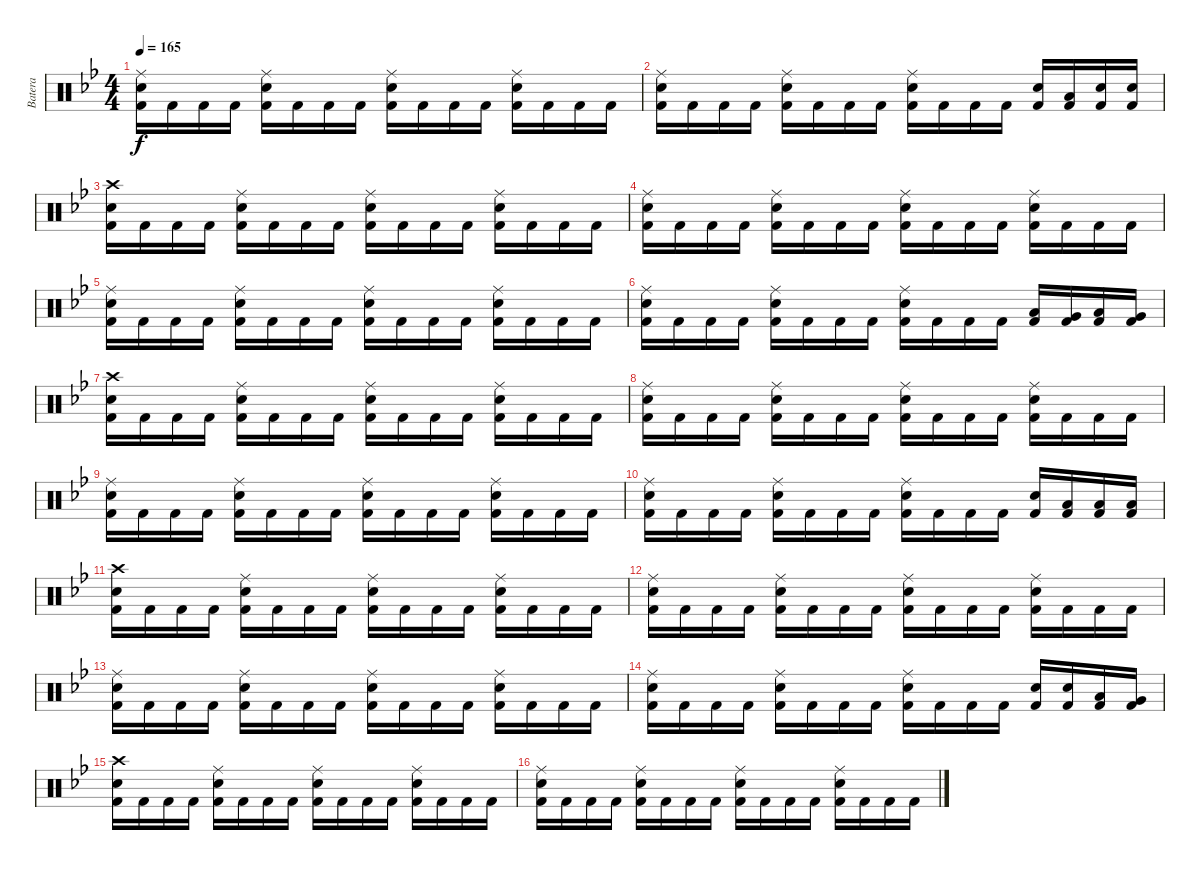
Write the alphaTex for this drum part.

\track ("Batera" "Batera") {instrument percussion}
\staff {score}
\articulation defaults
\ts (4 4)
\tempo 165
\clef neutral
\ks bb
("Ride (middle)" "Electric Snare (hit)" "Kick (hit) 2").16{dy f} "Kick (hit) 2".16 "Kick (hit) 2".16 "Kick (hit) 2".16 ("Ride (middle)" "Electric Snare (hit)" "Kick (hit) 2").16 "Kick (hit) 2".16 "Kick (hit) 2".16 "Kick (hit) 2".16 ("Ride (middle)" "Electric Snare (hit)" "Kick (hit) 2").16 "Kick (hit) 2".16 "Kick (hit) 2".16 "Kick (hit) 2".16 ("Ride (middle)" "Electric Snare (hit)" "Kick (hit) 2").16 "Kick (hit) 2".16 "Kick (hit) 2".16 "Kick (hit) 2".16 |
("Ride (middle)" "Electric Snare (hit)" "Kick (hit) 2").16 "Kick (hit) 2".16 "Kick (hit) 2".16 "Kick (hit) 2".16 ("Ride (middle)" "Electric Snare (hit)" "Kick (hit) 2").16 "Kick (hit) 2".16 "Kick (hit) 2".16 "Kick (hit) 2".16 ("Ride (middle)" "Electric Snare (hit)" "Kick (hit) 2").16 "Kick (hit) 2".16 "Kick (hit) 2".16 "Kick (hit) 2".16 ("Electric Snare (hit)" "Kick (hit) 2").16 ("Low Floor Tom (hit)" "Kick (hit) 2").16 ("Electric Snare (hit)" "Kick (hit) 2").16 ("Electric Snare (hit)" "Kick (hit) 2").16 |
("Crash high (hit)" "Electric Snare (hit)" "Kick (hit) 2").16 "Kick (hit) 2".16 "Kick (hit) 2".16 "Kick (hit) 2".16 ("Ride (middle)" "Electric Snare (hit)" "Kick (hit) 2").16 "Kick (hit) 2".16 "Kick (hit) 2".16 "Kick (hit) 2".16 ("Ride (middle)" "Electric Snare (hit)" "Kick (hit) 2").16 "Kick (hit) 2".16 "Kick (hit) 2".16 "Kick (hit) 2".16 ("Ride (middle)" "Electric Snare (hit)" "Kick (hit) 2").16 "Kick (hit) 2".16 "Kick (hit) 2".16 "Kick (hit) 2".16 |
("Ride (middle)" "Electric Snare (hit)" "Kick (hit) 2").16 "Kick (hit) 2".16 "Kick (hit) 2".16 "Kick (hit) 2".16 ("Ride (middle)" "Electric Snare (hit)" "Kick (hit) 2").16 "Kick (hit) 2".16 "Kick (hit) 2".16 "Kick (hit) 2".16 ("Ride (middle)" "Electric Snare (hit)" "Kick (hit) 2").16 "Kick (hit) 2".16 "Kick (hit) 2".16 "Kick (hit) 2".16 ("Ride (middle)" "Electric Snare (hit)" "Kick (hit) 2").16 "Kick (hit) 2".16 "Kick (hit) 2".16 "Kick (hit) 2".16 |
("Ride (middle)" "Electric Snare (hit)" "Kick (hit) 2").16 "Kick (hit) 2".16 "Kick (hit) 2".16 "Kick (hit) 2".16 ("Ride (middle)" "Electric Snare (hit)" "Kick (hit) 2").16 "Kick (hit) 2".16 "Kick (hit) 2".16 "Kick (hit) 2".16 ("Ride (middle)" "Electric Snare (hit)" "Kick (hit) 2").16 "Kick (hit) 2".16 "Kick (hit) 2".16 "Kick (hit) 2".16 ("Ride (middle)" "Electric Snare (hit)" "Kick (hit) 2").16 "Kick (hit) 2".16 "Kick (hit) 2".16 "Kick (hit) 2".16 |
("Ride (middle)" "Electric Snare (hit)" "Kick (hit) 2").16 "Kick (hit) 2".16 "Kick (hit) 2".16 "Kick (hit) 2".16 ("Ride (middle)" "Electric Snare (hit)" "Kick (hit) 2").16 "Kick (hit) 2".16 "Kick (hit) 2".16 "Kick (hit) 2".16 ("Ride (middle)" "Electric Snare (hit)" "Kick (hit) 2").16 "Kick (hit) 2".16 "Kick (hit) 2".16 "Kick (hit) 2".16 ("Low Floor Tom (hit)" "Kick (hit) 2").16 ("Very Low Tom (hit)" "Kick (hit) 2").16 ("Low Tom (hit)" "Kick (hit) 2").16 ("Very Low Tom (hit)" "Kick (hit) 2").16 |
("Crash high (hit)" "Electric Snare (hit)" "Kick (hit) 2").16 "Kick (hit) 2".16 "Kick (hit) 2".16 "Kick (hit) 2".16 ("Ride (middle)" "Electric Snare (hit)" "Kick (hit) 2").16 "Kick (hit) 2".16 "Kick (hit) 2".16 "Kick (hit) 2".16 ("Ride (middle)" "Electric Snare (hit)" "Kick (hit) 2").16 "Kick (hit) 2".16 "Kick (hit) 2".16 "Kick (hit) 2".16 ("Ride (middle)" "Electric Snare (hit)" "Kick (hit) 2").16 "Kick (hit) 2".16 "Kick (hit) 2".16 "Kick (hit) 2".16 |
("Ride (middle)" "Electric Snare (hit)" "Kick (hit) 2").16 "Kick (hit) 2".16 "Kick (hit) 2".16 "Kick (hit) 2".16 ("Ride (middle)" "Electric Snare (hit)" "Kick (hit) 2").16 "Kick (hit) 2".16 "Kick (hit) 2".16 "Kick (hit) 2".16 ("Ride (middle)" "Electric Snare (hit)" "Kick (hit) 2").16 "Kick (hit) 2".16 "Kick (hit) 2".16 "Kick (hit) 2".16 ("Ride (middle)" "Electric Snare (hit)" "Kick (hit) 2").16 "Kick (hit) 2".16 "Kick (hit) 2".16 "Kick (hit) 2".16 |
("Ride (middle)" "Electric Snare (hit)" "Kick (hit) 2").16 "Kick (hit) 2".16 "Kick (hit) 2".16 "Kick (hit) 2".16 ("Ride (middle)" "Electric Snare (hit)" "Kick (hit) 2").16 "Kick (hit) 2".16 "Kick (hit) 2".16 "Kick (hit) 2".16 ("Ride (middle)" "Electric Snare (hit)" "Kick (hit) 2").16 "Kick (hit) 2".16 "Kick (hit) 2".16 "Kick (hit) 2".16 ("Ride (middle)" "Electric Snare (hit)" "Kick (hit) 2").16 "Kick (hit) 2".16 "Kick (hit) 2".16 "Kick (hit) 2".16 |
("Ride (middle)" "Electric Snare (hit)" "Kick (hit) 2").16 "Kick (hit) 2".16 "Kick (hit) 2".16 "Kick (hit) 2".16 ("Ride (middle)" "Electric Snare (hit)" "Kick (hit) 2").16 "Kick (hit) 2".16 "Kick (hit) 2".16 "Kick (hit) 2".16 ("Ride (middle)" "Electric Snare (hit)" "Kick (hit) 2").16 "Kick (hit) 2".16 "Kick (hit) 2".16 "Kick (hit) 2".16 ("Electric Snare (hit)" "Kick (hit) 2").16 ("Low Floor Tom (hit)" "Kick (hit) 2").16 ("Low Tom (hit)" "Kick (hit) 2").16 ("Low Floor Tom (hit)" "Kick (hit) 2").16 |
("Crash high (hit)" "Electric Snare (hit)" "Kick (hit) 2").16 "Kick (hit) 2".16 "Kick (hit) 2".16 "Kick (hit) 2".16 ("Ride (middle)" "Electric Snare (hit)" "Kick (hit) 2").16 "Kick (hit) 2".16 "Kick (hit) 2".16 "Kick (hit) 2".16 ("Ride (middle)" "Electric Snare (hit)" "Kick (hit) 2").16 "Kick (hit) 2".16 "Kick (hit) 2".16 "Kick (hit) 2".16 ("Ride (middle)" "Electric Snare (hit)" "Kick (hit) 2").16 "Kick (hit) 2".16 "Kick (hit) 2".16 "Kick (hit) 2".16 |
("Ride (middle)" "Electric Snare (hit)" "Kick (hit) 2").16 "Kick (hit) 2".16 "Kick (hit) 2".16 "Kick (hit) 2".16 ("Ride (middle)" "Electric Snare (hit)" "Kick (hit) 2").16 "Kick (hit) 2".16 "Kick (hit) 2".16 "Kick (hit) 2".16 ("Ride (middle)" "Electric Snare (hit)" "Kick (hit) 2").16 "Kick (hit) 2".16 "Kick (hit) 2".16 "Kick (hit) 2".16 ("Ride (middle)" "Electric Snare (hit)" "Kick (hit) 2").16 "Kick (hit) 2".16 "Kick (hit) 2".16 "Kick (hit) 2".16 |
("Ride (middle)" "Electric Snare (hit)" "Kick (hit) 2").16 "Kick (hit) 2".16 "Kick (hit) 2".16 "Kick (hit) 2".16 ("Ride (middle)" "Electric Snare (hit)" "Kick (hit) 2").16 "Kick (hit) 2".16 "Kick (hit) 2".16 "Kick (hit) 2".16 ("Ride (middle)" "Electric Snare (hit)" "Kick (hit) 2").16 "Kick (hit) 2".16 "Kick (hit) 2".16 "Kick (hit) 2".16 ("Ride (middle)" "Electric Snare (hit)" "Kick (hit) 2").16 "Kick (hit) 2".16 "Kick (hit) 2".16 "Kick (hit) 2".16 |
("Ride (middle)" "Electric Snare (hit)" "Kick (hit) 2").16 "Kick (hit) 2".16 "Kick (hit) 2".16 "Kick (hit) 2".16 ("Ride (middle)" "Electric Snare (hit)" "Kick (hit) 2").16 "Kick (hit) 2".16 "Kick (hit) 2".16 "Kick (hit) 2".16 ("Ride (middle)" "Electric Snare (hit)" "Kick (hit) 2").16 "Kick (hit) 2".16 "Kick (hit) 2".16 "Kick (hit) 2".16 ("Electric Snare (hit)" "Kick (hit) 2").16 ("Electric Snare (hit)" "Kick (hit) 2").16 ("Low Floor Tom (hit)" "Kick (hit) 2").16 ("Very Low Tom (hit)" "Kick (hit) 2").16 |
("Crash high (hit)" "Electric Snare (hit)" "Kick (hit) 2").16 "Kick (hit) 2".16 "Kick (hit) 2".16 "Kick (hit) 2".16 ("Ride (middle)" "Electric Snare (hit)" "Kick (hit) 2").16 "Kick (hit) 2".16 "Kick (hit) 2".16 "Kick (hit) 2".16 ("Ride (middle)" "Electric Snare (hit)" "Kick (hit) 2").16 "Kick (hit) 2".16 "Kick (hit) 2".16 "Kick (hit) 2".16 ("Ride (middle)" "Electric Snare (hit)" "Kick (hit) 2").16 "Kick (hit) 2".16 "Kick (hit) 2".16 "Kick (hit) 2".16 |
("Ride (middle)" "Electric Snare (hit)" "Kick (hit) 2").16 "Kick (hit) 2".16 "Kick (hit) 2".16 "Kick (hit) 2".16 ("Ride (middle)" "Electric Snare (hit)" "Kick (hit) 2").16 "Kick (hit) 2".16 "Kick (hit) 2".16 "Kick (hit) 2".16 ("Ride (middle)" "Electric Snare (hit)" "Kick (hit) 2").16 "Kick (hit) 2".16 "Kick (hit) 2".16 "Kick (hit) 2".16 ("Ride (middle)" "Electric Snare (hit)" "Kick (hit) 2").16 "Kick (hit) 2".16 "Kick (hit) 2".16 "Kick (hit) 2".16
